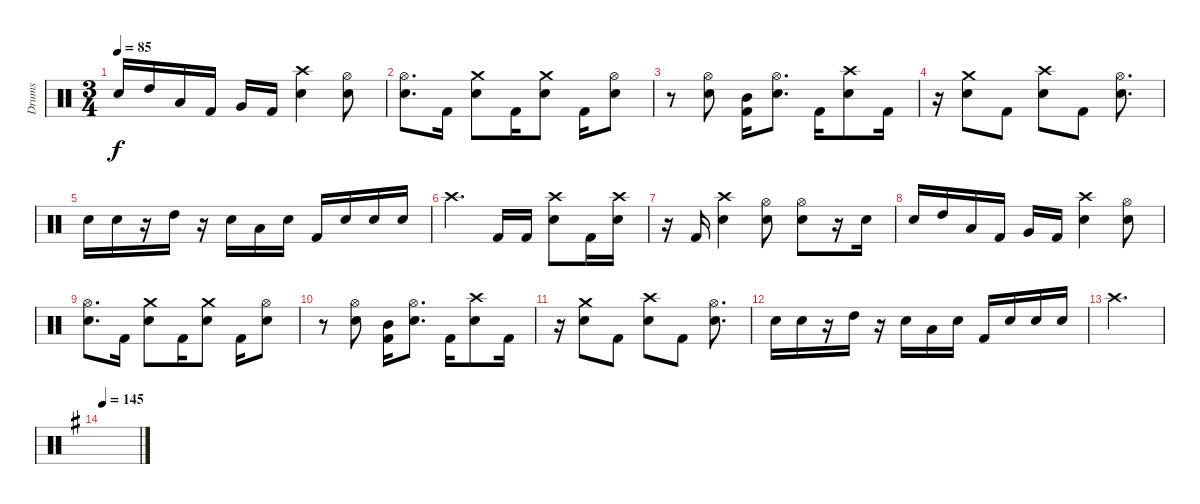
\track ("Drums" "Drums") {instrument percussion}
\staff {score}
\articulation defaults
\ts (3 4)
\tempo 85
\clef neutral
\ks c "Electric Snare (hit)".16{dy f} "High Tom (hit)".16 "Low Tom (hit)".16 "Kick (hit) 2".16 "Very Low Tom (hit)".16 "Kick (hit) 2".16
("Crash high (hit)" "Electric Snare (hit)").4 ("Hi-Hat (open)" "Electric Snare (hit)").8 |
("Hi-Hat (open)" "Electric Snare (hit)").8{d} "Kick (hit) 2".16 ("Crash medium (hit)" "Electric Snare (hit)").8 "Kick (hit) 2".16 ("Crash medium (hit)" "Electric Snare (hit)").8 "Kick (hit) 2".16 ("Hi-Hat (open)" "Electric Snare (hit)").8 |
r.8 ("Hi-Hat (open)" "Electric Snare (hit)").8 ("Mid Tom (hit)" "Kick (hit) 2").16 ("Hi-Hat (open)" "Electric Snare (hit)").8{d} "Kick (hit) 2".16 ("Crash high (hit)" "Electric Snare (hit)").8 "Kick (hit) 2".16 |
r.16 ("Crash medium (hit)" "Electric Snare (hit)").8 "Kick (hit) 2".8 ("Crash high (hit)" "Electric Snare (hit)").8 "Kick (hit) 2".8 ("Hi-Hat (open)" "Electric Snare (hit)").8{d} |
"Electric Snare (hit)".16 "Electric Snare (hit)".16 r.16 "High Tom (hit)".16 r.16 "Electric Snare (hit)".16 "Low Tom (hit)".16 "Electric Snare (hit)".16 "Kick (hit) 2".16 "Electric Snare (hit)".16 "Electric Snare (hit)".16 "Electric Snare (hit)".16 |
"Crash high (hit)".4{d} "Kick (hit) 2".16 "Kick (hit) 2".16 ("Crash high (hit)" "Electric Snare (hit)").8 "Kick (hit) 2".16 ("Crash high (hit)" "Electric Snare (hit)").16 |
r.16 "Kick (hit) 2".16 ("Crash high (hit)" "Electric Snare (hit)").4 ("Hi-Hat (open)" "Electric Snare (hit)").8 ("Hi-Hat (open)" "Electric Snare (hit)").8 r.16 "Electric Snare (hit)".16 |
"Electric Snare (hit)".16 "High Tom (hit)".16 "Low Tom (hit)".16 "Kick (hit) 2".16 "Very Low Tom (hit)".16 "Kick (hit) 2".16 ("Crash high (hit)" "Electric Snare (hit)").4 ("Hi-Hat (open)" "Electric Snare (hit)").8 |
("Hi-Hat (open)" "Electric Snare (hit)").8{d} "Kick (hit) 2".16 ("Crash medium (hit)" "Electric Snare (hit)").8 "Kick (hit) 2".16 ("Crash medium (hit)" "Electric Snare (hit)").8 "Kick (hit) 2".16 ("Hi-Hat (open)" "Electric Snare (hit)").8 |
r.8 ("Hi-Hat (open)" "Electric Snare (hit)").8 ("Mid Tom (hit)" "Kick (hit) 2").16 ("Hi-Hat (open)" "Electric Snare (hit)").8{d} "Kick (hit) 2".16 ("Crash high (hit)" "Electric Snare (hit)").8 "Kick (hit) 2".16 |
r.16 ("Crash medium (hit)" "Electric Snare (hit)").8 "Kick (hit) 2".8 ("Crash high (hit)" "Electric Snare (hit)").8 "Kick (hit) 2".8 ("Hi-Hat (open)" "Electric Snare (hit)").8{d} |
"Electric Snare (hit)".16 "Electric Snare (hit)".16 r.16 "High Tom (hit)".16 r.16 "Electric Snare (hit)".16 "Low Tom (hit)".16 "Electric Snare (hit)".16 "Kick (hit) 2".16 "Electric Snare (hit)".16 "Electric Snare (hit)".16 "Electric Snare (hit)".16 |
"Crash high (hit)".2{d} |
\tempo 145
\ks g
